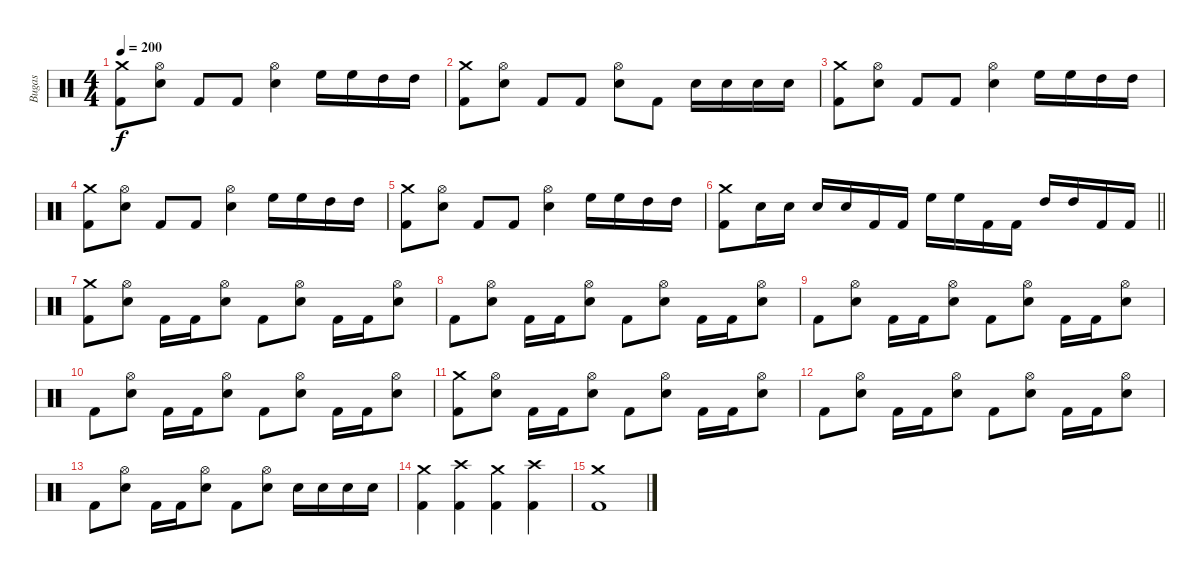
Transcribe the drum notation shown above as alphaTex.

\track ("Bugas" "Bugas") {instrument percussion}
\staff {score}
\articulation defaults
\ts (4 4)
\tempo 200
\clef neutral
\ks c
("Crash medium (hit)" "Kick (hit) 2").8{dy f} ("Hi-Hat (open)" "Electric Snare (hit)").8 "Kick (hit) 2".8 "Kick (hit) 2".8 ("Hi-Hat (open)" "Electric Snare (hit)").4 "High Floor Tom (hit)".16 "High Floor Tom (hit)".16 "High Tom (hit)".16 "High Tom (hit)".16 |
("Crash medium (hit)" "Kick (hit) 2").8 ("Hi-Hat (open)" "Electric Snare (hit)").8 "Kick (hit) 2".8 "Kick (hit) 2".8 ("Hi-Hat (open)" "Electric Snare (hit)").8 "Kick (hit) 2".8 "Electric Snare (hit)".16 "Electric Snare (hit)".16 "Electric Snare (hit)".16 "Electric Snare (hit)".16 |
("Crash medium (hit)" "Kick (hit) 2").8 ("Hi-Hat (open)" "Electric Snare (hit)").8 "Kick (hit) 2".8 "Kick (hit) 2".8 ("Hi-Hat (open)" "Electric Snare (hit)").4 "High Floor Tom (hit)".16 "High Floor Tom (hit)".16 "High Tom (hit)".16 "High Tom (hit)".16 |
("Crash medium (hit)" "Kick (hit) 2").8 ("Hi-Hat (open)" "Electric Snare (hit)").8 "Kick (hit) 2".8 "Kick (hit) 2".8 ("Hi-Hat (open)" "Electric Snare (hit)").4 "High Floor Tom (hit)".16 "High Floor Tom (hit)".16 "High Tom (hit)".16 "High Tom (hit)".16 |
("Crash medium (hit)" "Kick (hit) 2").8 ("Hi-Hat (open)" "Electric Snare (hit)").8 "Kick (hit) 2".8 "Kick (hit) 2".8 ("Hi-Hat (open)" "Electric Snare (hit)").4 "High Floor Tom (hit)".16 "High Floor Tom (hit)".16 "High Tom (hit)".16 "High Tom (hit)".16 |
\barLineRight lightlight
("Crash medium (hit)" "Kick (hit) 2").8 "Electric Snare (hit)".16 "Electric Snare (hit)".16 "Electric Snare (hit)".16 "Electric Snare (hit)".16 "Kick (hit) 2".16 "Kick (hit) 2".16 "High Floor Tom (hit)".16 "High Floor Tom (hit)".16 "Kick (hit) 2".16 "Kick (hit) 2".16 "High Tom (hit)".16 "High Tom (hit)".16 "Kick (hit) 2".16 "Kick (hit) 2".16 |
("Crash medium (hit)" "Kick (hit) 2").8 ("Hi-Hat (open)" "Electric Snare (hit)").8 "Kick (hit) 2".16 "Kick (hit) 2".16 ("Hi-Hat (open)" "Electric Snare (hit)").8 "Kick (hit) 2".8 ("Hi-Hat (open)" "Electric Snare (hit)").8 "Kick (hit) 2".16 "Kick (hit) 2".16 ("Hi-Hat (open)" "Electric Snare (hit)").8 |
"Kick (hit) 2".8 ("Hi-Hat (open)" "Electric Snare (hit)").8 "Kick (hit) 2".16 "Kick (hit) 2".16 ("Hi-Hat (open)" "Electric Snare (hit)").8 "Kick (hit) 2".8 ("Hi-Hat (open)" "Electric Snare (hit)").8 "Kick (hit) 2".16 "Kick (hit) 2".16 ("Hi-Hat (open)" "Electric Snare (hit)").8 |
"Kick (hit) 2".8 ("Hi-Hat (open)" "Electric Snare (hit)").8 "Kick (hit) 2".16 "Kick (hit) 2".16 ("Hi-Hat (open)" "Electric Snare (hit)").8 "Kick (hit) 2".8 ("Hi-Hat (open)" "Electric Snare (hit)").8 "Kick (hit) 2".16 "Kick (hit) 2".16 ("Hi-Hat (open)" "Electric Snare (hit)").8 |
"Kick (hit) 2".8 ("Hi-Hat (open)" "Electric Snare (hit)").8 "Kick (hit) 2".16 "Kick (hit) 2".16 ("Hi-Hat (open)" "Electric Snare (hit)").8 "Kick (hit) 2".8 ("Hi-Hat (open)" "Electric Snare (hit)").8 "Kick (hit) 2".16 "Kick (hit) 2".16 ("Hi-Hat (open)" "Electric Snare (hit)").8 |
("Crash medium (hit)" "Kick (hit) 2").8 ("Hi-Hat (open)" "Electric Snare (hit)").8 "Kick (hit) 2".16 "Kick (hit) 2".16 ("Hi-Hat (open)" "Electric Snare (hit)").8 "Kick (hit) 2".8 ("Hi-Hat (open)" "Electric Snare (hit)").8 "Kick (hit) 2".16 "Kick (hit) 2".16 ("Hi-Hat (open)" "Electric Snare (hit)").8 |
"Kick (hit) 2".8 ("Hi-Hat (open)" "Electric Snare (hit)").8 "Kick (hit) 2".16 "Kick (hit) 2".16 ("Hi-Hat (open)" "Electric Snare (hit)").8 "Kick (hit) 2".8 ("Hi-Hat (open)" "Electric Snare (hit)").8 "Kick (hit) 2".16 "Kick (hit) 2".16 ("Hi-Hat (open)" "Electric Snare (hit)").8 |
"Kick (hit) 2".8 ("Hi-Hat (open)" "Electric Snare (hit)").8 "Kick (hit) 2".16 "Kick (hit) 2".16 ("Hi-Hat (open)" "Electric Snare (hit)").8 "Kick (hit) 2".8 ("Hi-Hat (open)" "Electric Snare (hit)").8 "Electric Snare (hit)".16 "Electric Snare (hit)".16 "Electric Snare (hit)".16 "Electric Snare (hit)".16 |
("Crash medium (hit)" "Kick (hit) 2").4 ("Crash high (hit)" "Kick (hit) 2").4 ("Crash medium (hit)" "Kick (hit) 2").4 ("Crash high (hit)" "Kick (hit) 2").4 |
("Crash medium (hit)" "Kick (hit) 2").1
